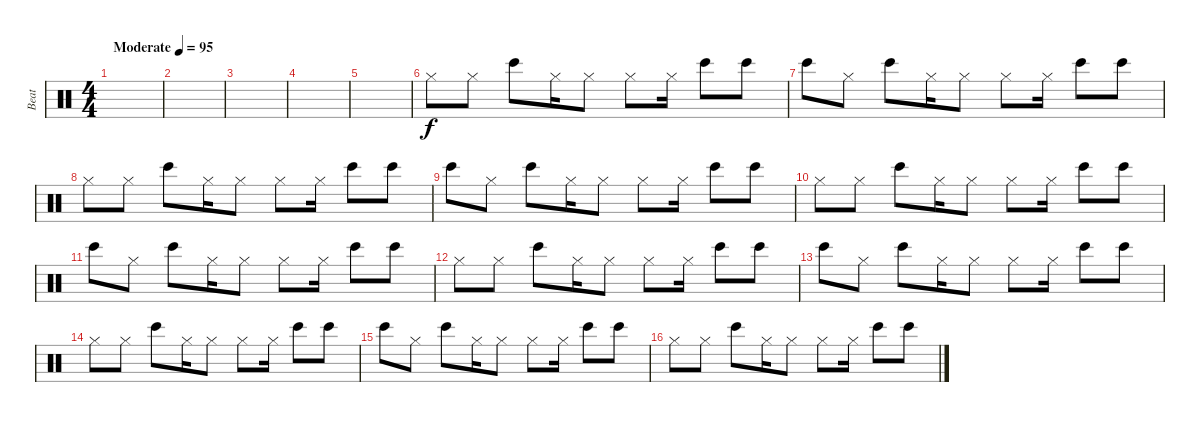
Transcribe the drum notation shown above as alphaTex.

\track ("Beat" "Beat") {instrument percussion}
\staff {score}
\articulation defaults
\ts (4 4)
\tempo (95 "Moderate")
\clef neutral
\ks c
|
|
|
|
|
"Hi-Hat (closed)".8 "Hi-Hat (closed)".8 "Bongo High (hit)".8 "Hi-Hat (closed)".16 "Hi-Hat (closed)".8 "Hi-Hat (closed)".8 "Hi-Hat (closed)".16 "Bongo High (hit)".8 "Bongo High (hit)".8 |
"Bongo High (hit)".8 "Hi-Hat (closed)".8 "Bongo High (hit)".8 "Hi-Hat (closed)".16 "Hi-Hat (closed)".8 "Hi-Hat (closed)".8 "Hi-Hat (closed)".16 "Bongo High (hit)".8 "Bongo High (hit)".8 |
"Hi-Hat (closed)".8 "Hi-Hat (closed)".8 "Bongo High (hit)".8 "Hi-Hat (closed)".16 "Hi-Hat (closed)".8 "Hi-Hat (closed)".8 "Hi-Hat (closed)".16 "Bongo High (hit)".8 "Bongo High (hit)".8 |
"Bongo High (hit)".8 "Hi-Hat (closed)".8 "Bongo High (hit)".8 "Hi-Hat (closed)".16 "Hi-Hat (closed)".8 "Hi-Hat (closed)".8 "Hi-Hat (closed)".16 "Bongo High (hit)".8 "Bongo High (hit)".8 |
"Hi-Hat (closed)".8 "Hi-Hat (closed)".8 "Bongo High (hit)".8 "Hi-Hat (closed)".16 "Hi-Hat (closed)".8 "Hi-Hat (closed)".8 "Hi-Hat (closed)".16 "Bongo High (hit)".8 "Bongo High (hit)".8 |
"Bongo High (hit)".8 "Hi-Hat (closed)".8 "Bongo High (hit)".8 "Hi-Hat (closed)".16 "Hi-Hat (closed)".8 "Hi-Hat (closed)".8 "Hi-Hat (closed)".16 "Bongo High (hit)".8 "Bongo High (hit)".8 |
"Hi-Hat (closed)".8 "Hi-Hat (closed)".8 "Bongo High (hit)".8 "Hi-Hat (closed)".16 "Hi-Hat (closed)".8 "Hi-Hat (closed)".8 "Hi-Hat (closed)".16 "Bongo High (hit)".8 "Bongo High (hit)".8 |
"Bongo High (hit)".8 "Hi-Hat (closed)".8 "Bongo High (hit)".8 "Hi-Hat (closed)".16 "Hi-Hat (closed)".8 "Hi-Hat (closed)".8 "Hi-Hat (closed)".16 "Bongo High (hit)".8 "Bongo High (hit)".8 |
"Hi-Hat (closed)".8 "Hi-Hat (closed)".8 "Bongo High (hit)".8 "Hi-Hat (closed)".16 "Hi-Hat (closed)".8 "Hi-Hat (closed)".8 "Hi-Hat (closed)".16 "Bongo High (hit)".8 "Bongo High (hit)".8 |
"Bongo High (hit)".8 "Hi-Hat (closed)".8 "Bongo High (hit)".8 "Hi-Hat (closed)".16 "Hi-Hat (closed)".8 "Hi-Hat (closed)".8 "Hi-Hat (closed)".16 "Bongo High (hit)".8 "Bongo High (hit)".8 |
"Hi-Hat (closed)".8 "Hi-Hat (closed)".8 "Bongo High (hit)".8 "Hi-Hat (closed)".16 "Hi-Hat (closed)".8 "Hi-Hat (closed)".8 "Hi-Hat (closed)".16 "Bongo High (hit)".8 "Bongo High (hit)".8
